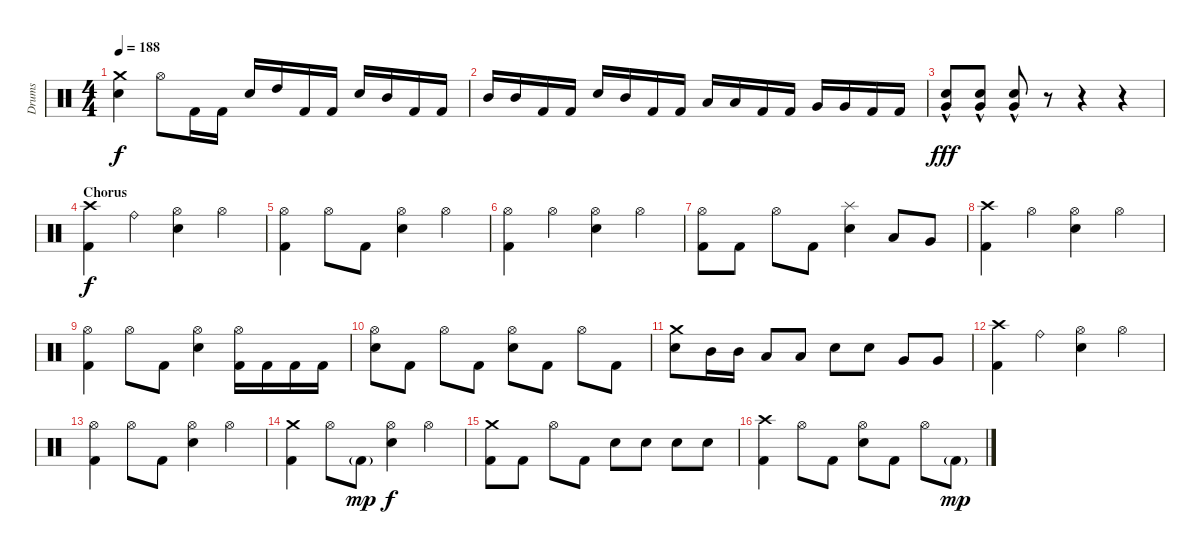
\track ("Drums" "Drums") {instrument percussion}
\staff {score}
\articulation defaults
\ts (4 4)
\tempo 188
\clef neutral
\ks c
("Crash medium (hit)" "Electric Snare (hit)").4{dy f} "Hi-Hat (open)".8 "Kick (hit) 2".16 "Kick (hit) 2".16 "Electric Snare (hit)".16 "High Tom (hit)".16 "Kick (hit) 2".16 "Kick (hit) 2".16 "Electric Snare (hit)".16 "Mid Tom (hit)".16 "Kick (hit) 2".16 "Kick (hit) 2".16 |
"Mid Tom (hit)".16 "Mid Tom (hit)".16 "Kick (hit) 2".16 "Kick (hit) 2".16 "Electric Snare (hit)".16 "Mid Tom (hit)".16 "Kick (hit) 2".16 "Kick (hit) 2".16 "Low Tom (hit)".16 "Low Tom (hit)".16 "Kick (hit) 2".16 "Kick (hit) 2".16 "Very Low Tom (hit)".16 "Very Low Tom (hit)".16 "Kick (hit) 2".16 "Kick (hit) 2".16 |
("Electric Snare (hit)"{hac} "Very Low Tom (hit)"{hac}).8{dy fff} ("Electric Snare (hit)"{hac} "Very Low Tom (hit)"{hac}).8 ("Electric Snare (hit)"{hac} "Very Low Tom (hit)"{hac}).8 r.8 r.4 r.4 |
\section ("" "Chorus")
("Crash high (hit)" "Kick (hit) 2").4{dy f} "Ride (bell)".4 ("Hi-Hat (open)" "Electric Snare (hit)").4 "Hi-Hat (open)".4 |
("Hi-Hat (open)" "Kick (hit) 2").4 "Hi-Hat (open)".8 "Kick (hit) 2".8 ("Hi-Hat (open)" "Electric Snare (hit)").4 "Hi-Hat (open)".4 |
("Hi-Hat (open)" "Kick (hit) 2").4 "Hi-Hat (open)".4 ("Hi-Hat (open)" "Electric Snare (hit)").4 "Hi-Hat (open)".4 |
("Hi-Hat (open)" "Kick (hit) 2").8 "Kick (hit) 2".8 "Hi-Hat (open)".8 "Kick (hit) 2".8 ("Splash (hit)" "Electric Snare (hit)").4 "Low Tom (hit)".8 "Very Low Tom (hit)".8 |
("Crash high (hit)" "Kick (hit) 2").4 "Hi-Hat (open)".4 ("Hi-Hat (open)" "Electric Snare (hit)").4 "Hi-Hat (open)".4 |
("Hi-Hat (open)" "Kick (hit) 2").4 "Hi-Hat (open)".8 "Kick (hit) 2".8 ("Hi-Hat (open)" "Electric Snare (hit)").4 ("Hi-Hat (open)" "Kick (hit) 2").16 "Kick (hit) 2".16 "Kick (hit) 2".16 "Kick (hit) 2".16 |
("Hi-Hat (open)" "Electric Snare (hit)").8 "Kick (hit) 2".8 "Hi-Hat (open)".8 "Kick (hit) 2".8 ("Hi-Hat (open)" "Electric Snare (hit)").8 "Kick (hit) 2".8 "Hi-Hat (open)".8 "Kick (hit) 2".8 |
("Crash medium (hit)" "Electric Snare (hit)").8 "Mid Tom (hit)".16 "Mid Tom (hit)".16 "Low Tom (hit)".8 "Low Tom (hit)".8 "Electric Snare (hit)".8 "Electric Snare (hit)".8 "Very Low Tom (hit)".8 "Very Low Tom (hit)".8 |
("Crash high (hit)" "Kick (hit) 2").4 "Ride (bell)".4 ("Hi-Hat (open)" "Electric Snare (hit)").4 "Hi-Hat (open)".4 |
("Hi-Hat (open)" "Kick (hit) 2").4 "Hi-Hat (open)".8 "Kick (hit) 2".8 ("Hi-Hat (open)" "Electric Snare (hit)").4 "Hi-Hat (open)".4 |
("Crash medium (hit)" "Kick (hit) 2").4 "Hi-Hat (open)".8 "Kick (hit) 2"{g}.8{dy mp} ("Hi-Hat (open)" "Electric Snare (hit)").4{dy f} "Hi-Hat (open)".4 |
("Crash medium (hit)" "Kick (hit) 2").8 "Kick (hit) 2".8 "Hi-Hat (open)".8 "Kick (hit) 2".8 "Electric Snare (hit)".8 "Electric Snare (hit)".8 "Electric Snare (hit)".8 "Electric Snare (hit)".8 |
("Crash high (hit)" "Kick (hit) 2").4 "Hi-Hat (open)".8 "Kick (hit) 2".8 ("Hi-Hat (open)" "Electric Snare (hit)").8 "Kick (hit) 2".8 "Hi-Hat (open)".8 "Kick (hit) 2"{g}.8{dy mp}
